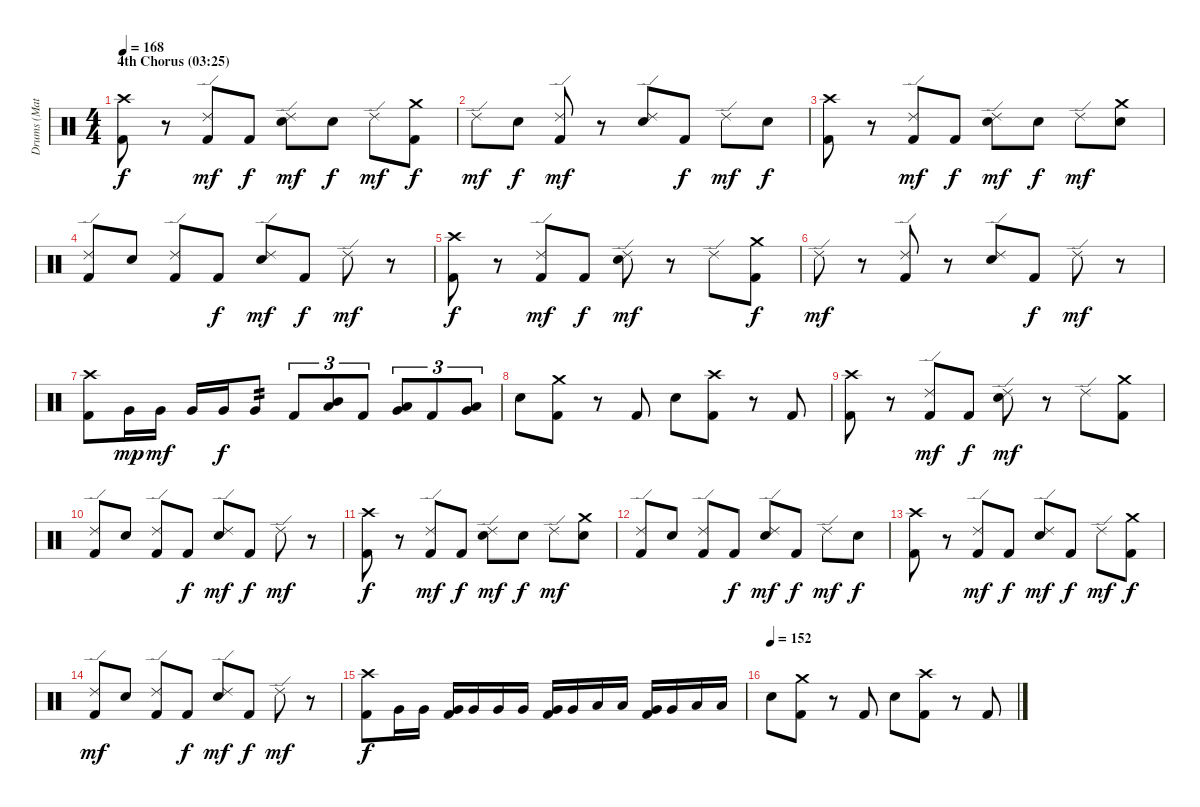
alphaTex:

\track ("Drums (Matt Sorum)" "Drums (Mat") {instrument percussion}
\staff {score}
\articulation defaults
\ts (4 4)
\section ("" "4th Chorus (03:25)")
\tempo 168
\clef neutral
\ks c
("Crash high (hit)" "Kick (hit) 2").8{dy f} r.8 ("Ride (edge) 2" "Kick (hit) 2").8{dy mf} "Kick (hit) 2".8{dy f} ("Ride (edge) 2" "Electric Snare (hit)").8{dy mf} "Electric Snare (hit)".8{dy f} "Ride (edge) 2".8{dy mf} ("Crash medium (hit)" "Kick (hit) 2").8{dy f} |
"Ride (edge) 2".8{dy mf} "Electric Snare (hit)".8{dy f} ("Ride (edge) 2" "Kick (hit) 2").8{dy mf} r.8 ("Ride (edge) 2" "Electric Snare (hit)").8 "Kick (hit) 2".8{dy f} "Ride (edge) 2".8{dy mf} "Electric Snare (hit)".8{dy f} |
("Crash high (hit)" "Kick (hit) 2").8 r.8 ("Ride (edge) 2" "Kick (hit) 2").8{dy mf} "Kick (hit) 2".8{dy f} ("Ride (edge) 2" "Electric Snare (hit)").8{dy mf} "Electric Snare (hit)".8{dy f} "Ride (edge) 2".8{dy mf} ("Crash medium (hit)" "Electric Snare (hit)").8 |
("Ride (edge) 2" "Kick (hit) 2").8 "Electric Snare (hit)".8 ("Ride (edge) 2" "Kick (hit) 2").8 "Kick (hit) 2".8{dy f} ("Ride (edge) 2" "Electric Snare (hit)").8{dy mf} "Kick (hit) 2".8{dy f} "Ride (edge) 2".8{dy mf} r.8 |
("Crash high (hit)" "Kick (hit) 2").8{dy f} r.8 ("Ride (edge) 2" "Kick (hit) 2").8{dy mf} "Kick (hit) 2".8{dy f} ("Ride (edge) 2" "Electric Snare (hit)").8{dy mf} r.8 "Ride (edge) 2".8 ("Crash medium (hit)" "Kick (hit) 2").8{dy f} |
"Ride (edge) 2".8{dy mf} r.8 ("Ride (edge) 2" "Kick (hit) 2").8 r.8 ("Ride (edge) 2" "Electric Snare (hit)").8 "Kick (hit) 2".8{dy f} "Ride (edge) 2".8{dy mf} r.8 |
("Crash high (hit)" "Kick (hit) 2").8 "Very Low Tom (hit)".16{dy mp} "Very Low Tom (hit)".16{dy mf} "Very Low Tom (hit)".16 "Very Low Tom (hit)".16{dy f} "Very Low Tom (hit)".8{tp 2} "Kick (hit) 2".8{tu (3 2)} ("Mid Tom (hit)" "Low Tom (hit)").8{tu (3 2)} "Kick (hit) 2".8{tu (3 2)} ("Low Tom (hit)" "Very Low Tom (hit)").8{tu (3 2)} "Kick (hit) 2".8{tu (3 2)} ("Very Low Tom (hit)" "Low Floor Tom (hit)").8{tu (3 2)} |
"Electric Snare (hit)".8 ("Crash medium (hit)" "Kick (hit) 2").8 r.8 "Kick (hit) 2".8 "Electric Snare (hit)".8 ("Crash high (hit)" "Kick (hit) 2").8 r.8 "Kick (hit) 2".8 |
("Crash high (hit)" "Kick (hit) 2").8 r.8 ("Ride (edge) 2" "Kick (hit) 2").8{dy mf} "Kick (hit) 2".8{dy f} ("Ride (edge) 2" "Electric Snare (hit)").8{dy mf} r.8 "Ride (edge) 2".8 ("Crash medium (hit)" "Kick (hit) 2").8 |
("Ride (edge) 2" "Kick (hit) 2").8 "Electric Snare (hit)".8 ("Ride (edge) 2" "Kick (hit) 2").8 "Kick (hit) 2".8{dy f} ("Ride (edge) 2" "Electric Snare (hit)").8{dy mf} "Kick (hit) 2".8{dy f} "Ride (edge) 2".8{dy mf} r.8 |
("Crash high (hit)" "Kick (hit) 2").8{dy f} r.8 ("Ride (edge) 2" "Kick (hit) 2").8{dy mf} "Kick (hit) 2".8{dy f} ("Ride (edge) 2" "Electric Snare (hit)").8{dy mf} "Electric Snare (hit)".8{dy f} "Ride (edge) 2".8{dy mf} ("Crash medium (hit)" "Electric Snare (hit)").8 |
("Ride (edge) 2" "Kick (hit) 2").8 "Electric Snare (hit)".8 ("Ride (edge) 2" "Kick (hit) 2").8 "Kick (hit) 2".8{dy f} ("Ride (edge) 2" "Electric Snare (hit)").8{dy mf} "Kick (hit) 2".8{dy f} "Ride (edge) 2".8{dy mf} "Electric Snare (hit)".8{dy f} |
("Crash high (hit)" "Kick (hit) 2").8 r.8 ("Ride (edge) 2" "Kick (hit) 2").8{dy mf} "Kick (hit) 2".8{dy f} ("Ride (edge) 2" "Electric Snare (hit)").8{dy mf} "Kick (hit) 2".8{dy f} "Ride (edge) 2".8{dy mf} ("Crash medium (hit)" "Kick (hit) 2").8{dy f} |
("Ride (edge) 2" "Kick (hit) 2").8{dy mf} "Electric Snare (hit)".8 ("Ride (edge) 2" "Kick (hit) 2").8 "Kick (hit) 2".8{dy f} ("Ride (edge) 2" "Electric Snare (hit)").8{dy mf} "Kick (hit) 2".8{dy f} "Ride (edge) 2".8{dy mf} r.8 |
("Crash high (hit)" "Kick (hit) 2").8{dy f} "Very Low Tom (hit)".16 "Very Low Tom (hit)".16 ("Very Low Tom (hit)" "Kick (hit) 2").16 "Very Low Tom (hit)".16 "Very Low Tom (hit)".16 "Very Low Tom (hit)".16 ("Very Low Tom (hit)" "Kick (hit) 2").16 "Very Low Tom (hit)".16 "Low Tom (hit)".16 "Low Tom (hit)".16 ("Very Low Tom (hit)" "Kick (hit) 2").16 "Very Low Tom (hit)".16 "Low Floor Tom (hit)".16 "Low Floor Tom (hit)".16 |
\tempo (152)
"Electric Snare (hit)".8 ("Crash medium (hit)" "Kick (hit) 2").8 r.8 "Kick (hit) 2".8 "Electric Snare (hit)".8 ("Crash high (hit)" "Kick (hit) 2").8 r.8 "Kick (hit) 2".8
